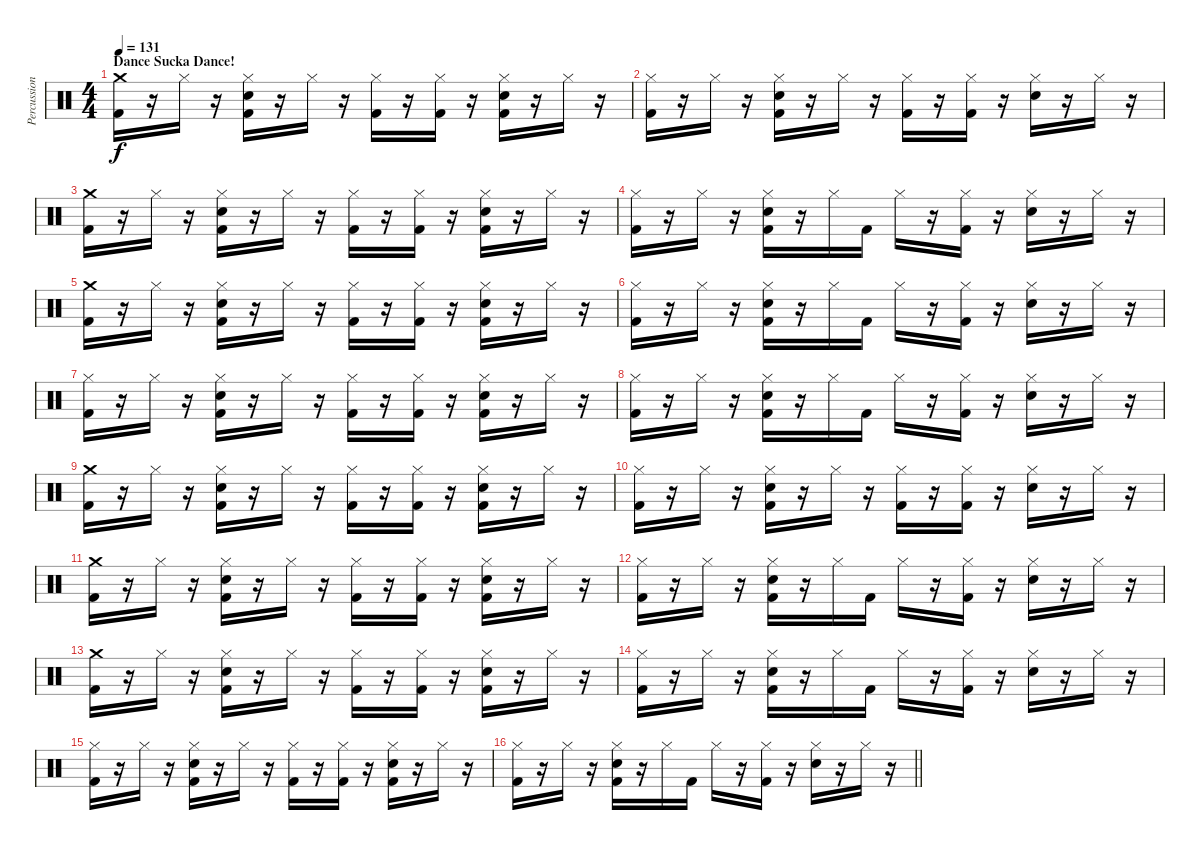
\track ("Percussion" "Percussion") {instrument percussion}
\staff {score}
\articulation defaults
\ts (4 4)
\section ("" "Dance Sucka Dance!")
\tempo 131
\clef neutral
\ks c
("Crash medium (hit)" "Kick (hit) 2").16{dy f} r.16 "Hi-Hat (closed)".16 r.16 ("Hi-Hat (closed)" "Electric Snare (hit)" "Kick (hit) 2").16 r.16 "Hi-Hat (closed)".16 r.16 ("Hi-Hat (closed)" "Kick (hit) 2").16 r.16 ("Hi-Hat (closed)" "Kick (hit) 2").16 r.16 ("Hi-Hat (closed)" "Electric Snare (hit)" "Kick (hit) 2").16 r.16 "Hi-Hat (closed)".16 r.16 |
("Hi-Hat (closed)" "Kick (hit) 2").16 r.16 "Hi-Hat (closed)".16 r.16 ("Hi-Hat (closed)" "Electric Snare (hit)" "Kick (hit) 2").16 r.16 "Hi-Hat (closed)".16 r.16 ("Hi-Hat (closed)" "Kick (hit) 2").16 r.16 ("Hi-Hat (closed)" "Kick (hit) 2").16 r.16 ("Hi-Hat (closed)" "Electric Snare (hit)").16 r.16 "Hi-Hat (closed)".16 r.16 |
("Crash medium (hit)" "Kick (hit) 2").16 r.16 "Hi-Hat (closed)".16 r.16 ("Hi-Hat (closed)" "Electric Snare (hit)" "Kick (hit) 2").16 r.16 "Hi-Hat (closed)".16 r.16 ("Hi-Hat (closed)" "Kick (hit) 2").16 r.16 ("Hi-Hat (closed)" "Kick (hit) 2").16 r.16 ("Hi-Hat (closed)" "Electric Snare (hit)" "Kick (hit) 2").16 r.16 "Hi-Hat (closed)".16 r.16 |
("Hi-Hat (closed)" "Kick (hit) 2").16 r.16 "Hi-Hat (closed)".16 r.16 ("Hi-Hat (closed)" "Electric Snare (hit)" "Kick (hit) 2").16 r.16 "Hi-Hat (closed)".16 "Kick (hit) 2".16 "Hi-Hat (closed)".16 r.16 ("Hi-Hat (closed)" "Kick (hit) 2").16 r.16 ("Hi-Hat (closed)" "Electric Snare (hit)").16 r.16 "Hi-Hat (closed)".16 r.16 |
("Crash medium (hit)" "Kick (hit) 2").16 r.16 "Hi-Hat (closed)".16 r.16 ("Hi-Hat (closed)" "Electric Snare (hit)" "Kick (hit) 2").16 r.16 "Hi-Hat (closed)".16 r.16 ("Hi-Hat (closed)" "Kick (hit) 2").16 r.16 ("Hi-Hat (closed)" "Kick (hit) 2").16 r.16 ("Hi-Hat (closed)" "Electric Snare (hit)" "Kick (hit) 2").16 r.16 "Hi-Hat (closed)".16 r.16 |
("Hi-Hat (closed)" "Kick (hit) 2").16 r.16 "Hi-Hat (closed)".16 r.16 ("Hi-Hat (closed)" "Electric Snare (hit)" "Kick (hit) 2").16 r.16 "Hi-Hat (closed)".16 "Kick (hit) 2".16 "Hi-Hat (closed)".16 r.16 ("Hi-Hat (closed)" "Kick (hit) 2").16 r.16 ("Hi-Hat (closed)" "Electric Snare (hit)").16 r.16 "Hi-Hat (closed)".16 r.16 |
("Hi-Hat (closed)" "Kick (hit) 2").16 r.16 "Hi-Hat (closed)".16 r.16 ("Hi-Hat (closed)" "Electric Snare (hit)" "Kick (hit) 2").16 r.16 "Hi-Hat (closed)".16 r.16 ("Hi-Hat (closed)" "Kick (hit) 2").16 r.16 ("Hi-Hat (closed)" "Kick (hit) 2").16 r.16 ("Hi-Hat (closed)" "Electric Snare (hit)" "Kick (hit) 2").16 r.16 "Hi-Hat (closed)".16 r.16 |
("Hi-Hat (closed)" "Kick (hit) 2").16 r.16 "Hi-Hat (closed)".16 r.16 ("Hi-Hat (closed)" "Electric Snare (hit)" "Kick (hit) 2").16 r.16 "Hi-Hat (closed)".16 "Kick (hit) 2".16 "Hi-Hat (closed)".16 r.16 ("Hi-Hat (closed)" "Kick (hit) 2").16 r.16 ("Hi-Hat (closed)" "Electric Snare (hit)").16 r.16 "Hi-Hat (closed)".16 r.16 |
("Crash medium (hit)" "Kick (hit) 2").16 r.16 "Hi-Hat (closed)".16 r.16 ("Hi-Hat (closed)" "Electric Snare (hit)" "Kick (hit) 2").16 r.16 "Hi-Hat (closed)".16 r.16 ("Hi-Hat (closed)" "Kick (hit) 2").16 r.16 ("Hi-Hat (closed)" "Kick (hit) 2").16 r.16 ("Hi-Hat (closed)" "Electric Snare (hit)" "Kick (hit) 2").16 r.16 "Hi-Hat (closed)".16 r.16 |
("Hi-Hat (closed)" "Kick (hit) 2").16 r.16 "Hi-Hat (closed)".16 r.16 ("Hi-Hat (closed)" "Electric Snare (hit)" "Kick (hit) 2").16 r.16 "Hi-Hat (closed)".16 r.16 ("Hi-Hat (closed)" "Kick (hit) 2").16 r.16 ("Hi-Hat (closed)" "Kick (hit) 2").16 r.16 ("Hi-Hat (closed)" "Electric Snare (hit)").16 r.16 "Hi-Hat (closed)".16 r.16 |
("Crash medium (hit)" "Kick (hit) 2").16 r.16 "Hi-Hat (closed)".16 r.16 ("Hi-Hat (closed)" "Electric Snare (hit)" "Kick (hit) 2").16 r.16 "Hi-Hat (closed)".16 r.16 ("Hi-Hat (closed)" "Kick (hit) 2").16 r.16 ("Hi-Hat (closed)" "Kick (hit) 2").16 r.16 ("Hi-Hat (closed)" "Electric Snare (hit)" "Kick (hit) 2").16 r.16 "Hi-Hat (closed)".16 r.16 |
("Hi-Hat (closed)" "Kick (hit) 2").16 r.16 "Hi-Hat (closed)".16 r.16 ("Hi-Hat (closed)" "Electric Snare (hit)" "Kick (hit) 2").16 r.16 "Hi-Hat (closed)".16 "Kick (hit) 2".16 "Hi-Hat (closed)".16 r.16 ("Hi-Hat (closed)" "Kick (hit) 2").16 r.16 ("Hi-Hat (closed)" "Electric Snare (hit)").16 r.16 "Hi-Hat (closed)".16 r.16 |
("Crash medium (hit)" "Kick (hit) 2").16 r.16 "Hi-Hat (closed)".16 r.16 ("Hi-Hat (closed)" "Electric Snare (hit)" "Kick (hit) 2").16 r.16 "Hi-Hat (closed)".16 r.16 ("Hi-Hat (closed)" "Kick (hit) 2").16 r.16 ("Hi-Hat (closed)" "Kick (hit) 2").16 r.16 ("Hi-Hat (closed)" "Electric Snare (hit)" "Kick (hit) 2").16 r.16 "Hi-Hat (closed)".16 r.16 |
("Hi-Hat (closed)" "Kick (hit) 2").16 r.16 "Hi-Hat (closed)".16 r.16 ("Hi-Hat (closed)" "Electric Snare (hit)" "Kick (hit) 2").16 r.16 "Hi-Hat (closed)".16 "Kick (hit) 2".16 "Hi-Hat (closed)".16 r.16 ("Hi-Hat (closed)" "Kick (hit) 2").16 r.16 ("Hi-Hat (closed)" "Electric Snare (hit)").16 r.16 "Hi-Hat (closed)".16 r.16 |
("Hi-Hat (closed)" "Kick (hit) 2").16 r.16 "Hi-Hat (closed)".16 r.16 ("Hi-Hat (closed)" "Electric Snare (hit)" "Kick (hit) 2").16 r.16 "Hi-Hat (closed)".16 r.16 ("Hi-Hat (closed)" "Kick (hit) 2").16 r.16 ("Hi-Hat (closed)" "Kick (hit) 2").16 r.16 ("Hi-Hat (closed)" "Electric Snare (hit)" "Kick (hit) 2").16 r.16 "Hi-Hat (closed)".16 r.16 |
\barLineRight lightlight
("Hi-Hat (closed)" "Kick (hit) 2").16 r.16 "Hi-Hat (closed)".16 r.16 ("Hi-Hat (closed)" "Electric Snare (hit)" "Kick (hit) 2").16 r.16 "Hi-Hat (closed)".16 "Kick (hit) 2".16 "Hi-Hat (closed)".16 r.16 ("Hi-Hat (closed)" "Kick (hit) 2").16 r.16 ("Hi-Hat (closed)" "Electric Snare (hit)").16 r.16 "Hi-Hat (closed)".16 r.16
